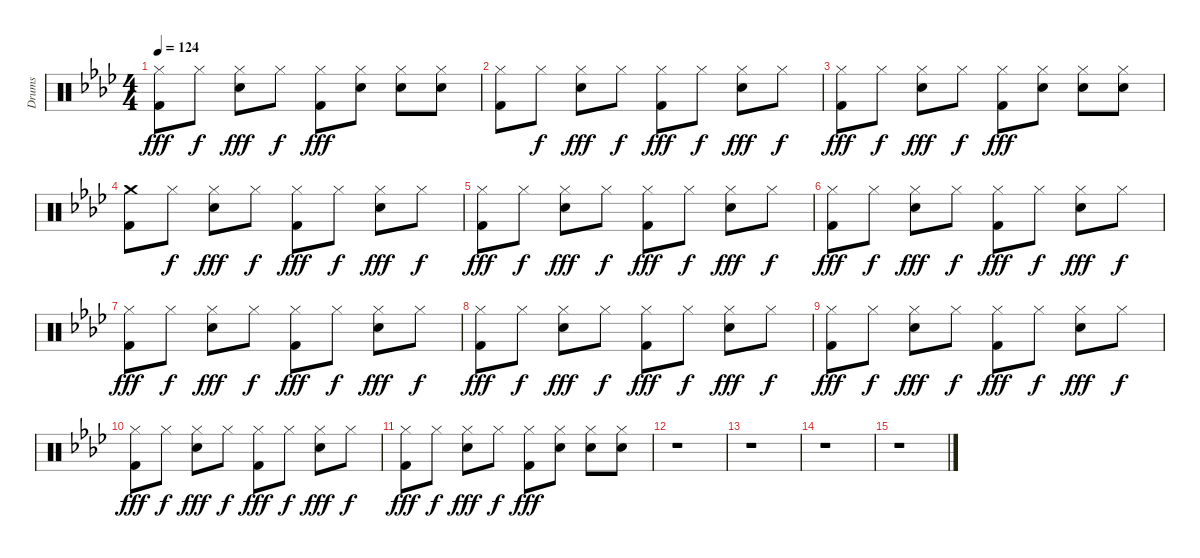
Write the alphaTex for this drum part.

\track ("Drums" "Drums") {instrument percussion}
\staff {score}
\articulation defaults
\ts (4 4)
\tempo 124
\clef neutral
\ks ab
("Hi-Hat (closed)" "Kick (hit) 2").8{dy fff} "Hi-Hat (closed)".8{dy f} ("Hi-Hat (closed)" "Snare (hit) 2").8{dy fff} "Hi-Hat (closed)".8{dy f} ("Hi-Hat (closed)" "Kick (hit) 2").8{dy fff} ("Hi-Hat (closed)" "Snare (hit) 2").8 ("Hi-Hat (closed)" "Snare (hit) 2").8 ("Hi-Hat (closed)" "Snare (hit) 2").8 |
("Hi-Hat (closed)" "Kick (hit) 2").8 "Hi-Hat (closed)".8{dy f} ("Hi-Hat (closed)" "Snare (hit) 2").8{dy fff} "Hi-Hat (closed)".8{dy f} ("Hi-Hat (closed)" "Kick (hit) 2").8{dy fff} "Hi-Hat (closed)".8{dy f} ("Hi-Hat (closed)" "Snare (hit) 2").8{dy fff} "Hi-Hat (closed)".8{dy f} |
("Hi-Hat (closed)" "Kick (hit) 2").8{dy fff} "Hi-Hat (closed)".8{dy f} ("Hi-Hat (closed)" "Snare (hit) 2").8{dy fff} "Hi-Hat (closed)".8{dy f} ("Hi-Hat (closed)" "Kick (hit) 2").8{dy fff} ("Hi-Hat (closed)" "Snare (hit) 2").8 ("Hi-Hat (closed)" "Snare (hit) 2").8 ("Hi-Hat (closed)" "Snare (hit) 2").8 |
("Crash medium (hit)" "Kick (hit) 2").8 "Hi-Hat (closed)".8{dy f} ("Hi-Hat (closed)" "Snare (hit) 2").8{dy fff} "Hi-Hat (closed)".8{dy f} ("Hi-Hat (closed)" "Kick (hit) 2").8{dy fff} "Hi-Hat (closed)".8{dy f} ("Hi-Hat (closed)" "Snare (hit) 2").8{dy fff} "Hi-Hat (closed)".8{dy f} |
("Hi-Hat (closed)" "Kick (hit) 2").8{dy fff} "Hi-Hat (closed)".8{dy f} ("Hi-Hat (closed)" "Snare (hit) 2").8{dy fff} "Hi-Hat (closed)".8{dy f} ("Hi-Hat (closed)" "Kick (hit) 2").8{dy fff} "Hi-Hat (closed)".8{dy f} ("Hi-Hat (closed)" "Snare (hit) 2").8{dy fff} "Hi-Hat (closed)".8{dy f} |
("Hi-Hat (closed)" "Kick (hit) 2").8{dy fff} "Hi-Hat (closed)".8{dy f} ("Hi-Hat (closed)" "Snare (hit) 2").8{dy fff} "Hi-Hat (closed)".8{dy f} ("Hi-Hat (closed)" "Kick (hit) 2").8{dy fff} "Hi-Hat (closed)".8{dy f} ("Hi-Hat (closed)" "Snare (hit) 2").8{dy fff} "Hi-Hat (closed)".8{dy f} |
("Hi-Hat (closed)" "Kick (hit) 2").8{dy fff} "Hi-Hat (closed)".8{dy f} ("Hi-Hat (closed)" "Snare (hit) 2").8{dy fff} "Hi-Hat (closed)".8{dy f} ("Hi-Hat (closed)" "Kick (hit) 2").8{dy fff} "Hi-Hat (closed)".8{dy f} ("Hi-Hat (closed)" "Snare (hit) 2").8{dy fff} "Hi-Hat (closed)".8{dy f} |
("Hi-Hat (closed)" "Kick (hit) 2").8{dy fff} "Hi-Hat (closed)".8{dy f} ("Hi-Hat (closed)" "Snare (hit) 2").8{dy fff} "Hi-Hat (closed)".8{dy f} ("Hi-Hat (closed)" "Kick (hit) 2").8{dy fff} "Hi-Hat (closed)".8{dy f} ("Hi-Hat (closed)" "Snare (hit) 2").8{dy fff} "Hi-Hat (closed)".8{dy f} |
("Hi-Hat (closed)" "Kick (hit) 2").8{dy fff} "Hi-Hat (closed)".8{dy f} ("Hi-Hat (closed)" "Snare (hit) 2").8{dy fff} "Hi-Hat (closed)".8{dy f} ("Hi-Hat (closed)" "Kick (hit) 2").8{dy fff} "Hi-Hat (closed)".8{dy f} ("Hi-Hat (closed)" "Snare (hit) 2").8{dy fff} "Hi-Hat (closed)".8{dy f} |
("Hi-Hat (closed)" "Kick (hit) 2").8{dy fff} "Hi-Hat (closed)".8{dy f} ("Hi-Hat (closed)" "Snare (hit) 2").8{dy fff} "Hi-Hat (closed)".8{dy f} ("Hi-Hat (closed)" "Kick (hit) 2").8{dy fff} "Hi-Hat (closed)".8{dy f} ("Hi-Hat (closed)" "Snare (hit) 2").8{dy fff} "Hi-Hat (closed)".8{dy f} |
("Hi-Hat (closed)" "Kick (hit) 2").8{dy fff} "Hi-Hat (closed)".8{dy f} ("Hi-Hat (closed)" "Snare (hit) 2").8{dy fff} "Hi-Hat (closed)".8{dy f} ("Hi-Hat (closed)" "Kick (hit) 2").8{dy fff} ("Hi-Hat (closed)" "Snare (hit) 2").8 ("Hi-Hat (closed)" "Snare (hit) 2").8 ("Hi-Hat (closed)" "Snare (hit) 2").8 |
r.1 |
r.1 |
r.1 |
r.1
